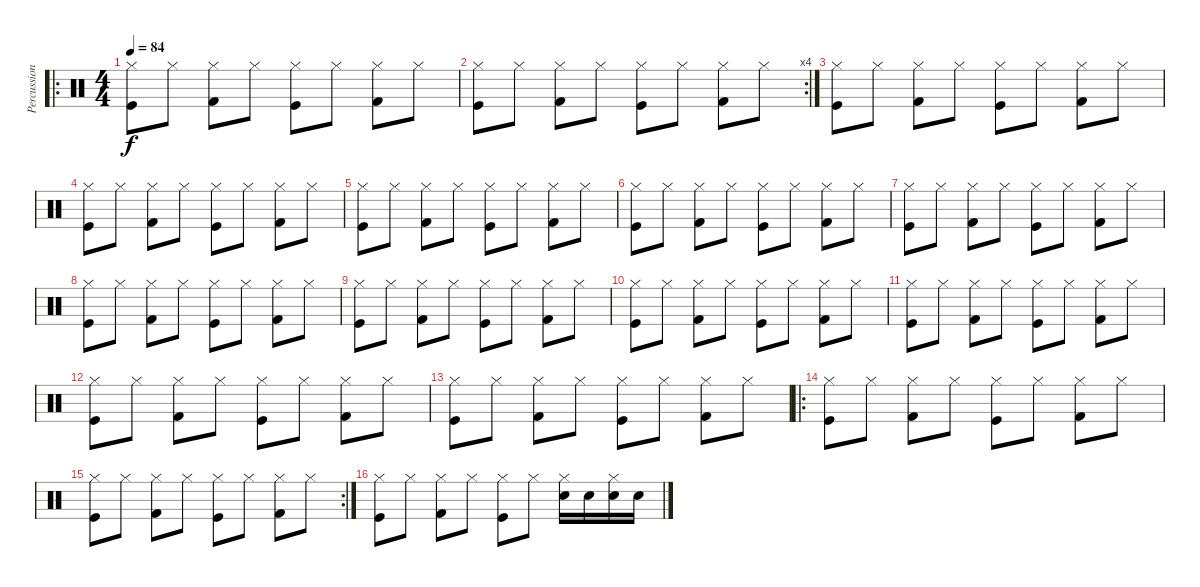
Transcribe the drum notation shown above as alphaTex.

\track ("Percussions" "Percussion") {instrument percussion}
\staff {score}
\articulation defaults
\ro
\ts (4 4)
\tempo 84
\clef neutral
\ks c
("Hi-Hat (closed)" "Kick (hit)").8{dy f} "Hi-Hat (closed)".8 ("Hi-Hat (closed)" "Kick (hit) 2").8 "Hi-Hat (closed)".8 ("Hi-Hat (closed)" "Kick (hit)").8 "Hi-Hat (closed)".8 ("Hi-Hat (closed)" "Kick (hit) 2").8 "Hi-Hat (closed)".8 |
\rc 4
("Hi-Hat (closed)" "Kick (hit)").8 "Hi-Hat (closed)".8 ("Hi-Hat (closed)" "Kick (hit) 2").8 "Hi-Hat (closed)".8 ("Hi-Hat (closed)" "Kick (hit)").8 "Hi-Hat (closed)".8 ("Hi-Hat (closed)" "Kick (hit) 2").8 "Hi-Hat (closed)".8 |
("Hi-Hat (closed)" "Kick (hit)").8 "Hi-Hat (closed)".8 ("Hi-Hat (closed)" "Kick (hit) 2").8 "Hi-Hat (closed)".8 ("Hi-Hat (closed)" "Kick (hit)").8 "Hi-Hat (closed)".8 ("Hi-Hat (closed)" "Kick (hit) 2").8 "Hi-Hat (closed)".8 |
("Hi-Hat (closed)" "Kick (hit)").8 "Hi-Hat (closed)".8 ("Hi-Hat (closed)" "Kick (hit) 2").8 "Hi-Hat (closed)".8 ("Hi-Hat (closed)" "Kick (hit)").8 "Hi-Hat (closed)".8 ("Hi-Hat (closed)" "Kick (hit) 2").8 "Hi-Hat (closed)".8 |
("Hi-Hat (closed)" "Kick (hit)").8 "Hi-Hat (closed)".8 ("Hi-Hat (closed)" "Kick (hit) 2").8 "Hi-Hat (closed)".8 ("Hi-Hat (closed)" "Kick (hit)").8 "Hi-Hat (closed)".8 ("Hi-Hat (closed)" "Kick (hit) 2").8 "Hi-Hat (closed)".8 |
("Hi-Hat (closed)" "Kick (hit)").8 "Hi-Hat (closed)".8 ("Hi-Hat (closed)" "Kick (hit) 2").8 "Hi-Hat (closed)".8 ("Hi-Hat (closed)" "Kick (hit)").8 "Hi-Hat (closed)".8 ("Hi-Hat (closed)" "Kick (hit) 2").8 "Hi-Hat (closed)".8 |
("Hi-Hat (closed)" "Kick (hit)").8 "Hi-Hat (closed)".8 ("Hi-Hat (closed)" "Kick (hit) 2").8 "Hi-Hat (closed)".8 ("Hi-Hat (closed)" "Kick (hit)").8 "Hi-Hat (closed)".8 ("Hi-Hat (closed)" "Kick (hit) 2").8 "Hi-Hat (closed)".8 |
("Hi-Hat (closed)" "Kick (hit)").8 "Hi-Hat (closed)".8 ("Hi-Hat (closed)" "Kick (hit) 2").8 "Hi-Hat (closed)".8 ("Hi-Hat (closed)" "Kick (hit)").8 "Hi-Hat (closed)".8 ("Hi-Hat (closed)" "Kick (hit) 2").8 "Hi-Hat (closed)".8 |
("Hi-Hat (closed)" "Kick (hit)").8 "Hi-Hat (closed)".8 ("Hi-Hat (closed)" "Kick (hit) 2").8 "Hi-Hat (closed)".8 ("Hi-Hat (closed)" "Kick (hit)").8 "Hi-Hat (closed)".8 ("Hi-Hat (closed)" "Kick (hit) 2").8 "Hi-Hat (closed)".8 |
("Hi-Hat (closed)" "Kick (hit)").8 "Hi-Hat (closed)".8 ("Hi-Hat (closed)" "Kick (hit) 2").8 "Hi-Hat (closed)".8 ("Hi-Hat (closed)" "Kick (hit)").8 "Hi-Hat (closed)".8 ("Hi-Hat (closed)" "Kick (hit) 2").8 "Hi-Hat (closed)".8 |
("Hi-Hat (closed)" "Kick (hit)").8 "Hi-Hat (closed)".8 ("Hi-Hat (closed)" "Kick (hit) 2").8 "Hi-Hat (closed)".8 ("Hi-Hat (closed)" "Kick (hit)").8 "Hi-Hat (closed)".8 ("Hi-Hat (closed)" "Kick (hit) 2").8 "Hi-Hat (closed)".8 |
("Hi-Hat (closed)" "Kick (hit)").8 "Hi-Hat (closed)".8 ("Hi-Hat (closed)" "Kick (hit) 2").8 "Hi-Hat (closed)".8 ("Hi-Hat (closed)" "Kick (hit)").8 "Hi-Hat (closed)".8 ("Hi-Hat (closed)" "Kick (hit) 2").8 "Hi-Hat (closed)".8 |
("Hi-Hat (closed)" "Kick (hit)").8 "Hi-Hat (closed)".8 ("Hi-Hat (closed)" "Kick (hit) 2").8 "Hi-Hat (closed)".8 ("Hi-Hat (closed)" "Kick (hit)").8 "Hi-Hat (closed)".8 ("Hi-Hat (closed)" "Kick (hit) 2").8 "Hi-Hat (closed)".8 |
\ro
("Hi-Hat (closed)" "Kick (hit)").8 "Hi-Hat (closed)".8 ("Hi-Hat (closed)" "Kick (hit) 2").8 "Hi-Hat (closed)".8 ("Hi-Hat (closed)" "Kick (hit)").8 "Hi-Hat (closed)".8 ("Hi-Hat (closed)" "Kick (hit) 2").8 "Hi-Hat (closed)".8 |
\rc 2
("Hi-Hat (closed)" "Kick (hit)").8 "Hi-Hat (closed)".8 ("Hi-Hat (closed)" "Kick (hit) 2").8 "Hi-Hat (closed)".8 ("Hi-Hat (closed)" "Kick (hit)").8 "Hi-Hat (closed)".8 ("Hi-Hat (closed)" "Kick (hit) 2").8 "Hi-Hat (closed)".8 |
("Hi-Hat (closed)" "Kick (hit)").8 "Hi-Hat (closed)".8 ("Hi-Hat (closed)" "Kick (hit) 2").8 "Hi-Hat (closed)".8 ("Hi-Hat (closed)" "Kick (hit)").8 "Hi-Hat (closed)".8 ("Hi-Hat (closed)" "Snare (hit) 2").16 "Snare (hit) 2".16 ("Hi-Hat (closed)" "Snare (hit) 2").16 "Snare (hit) 2".16
